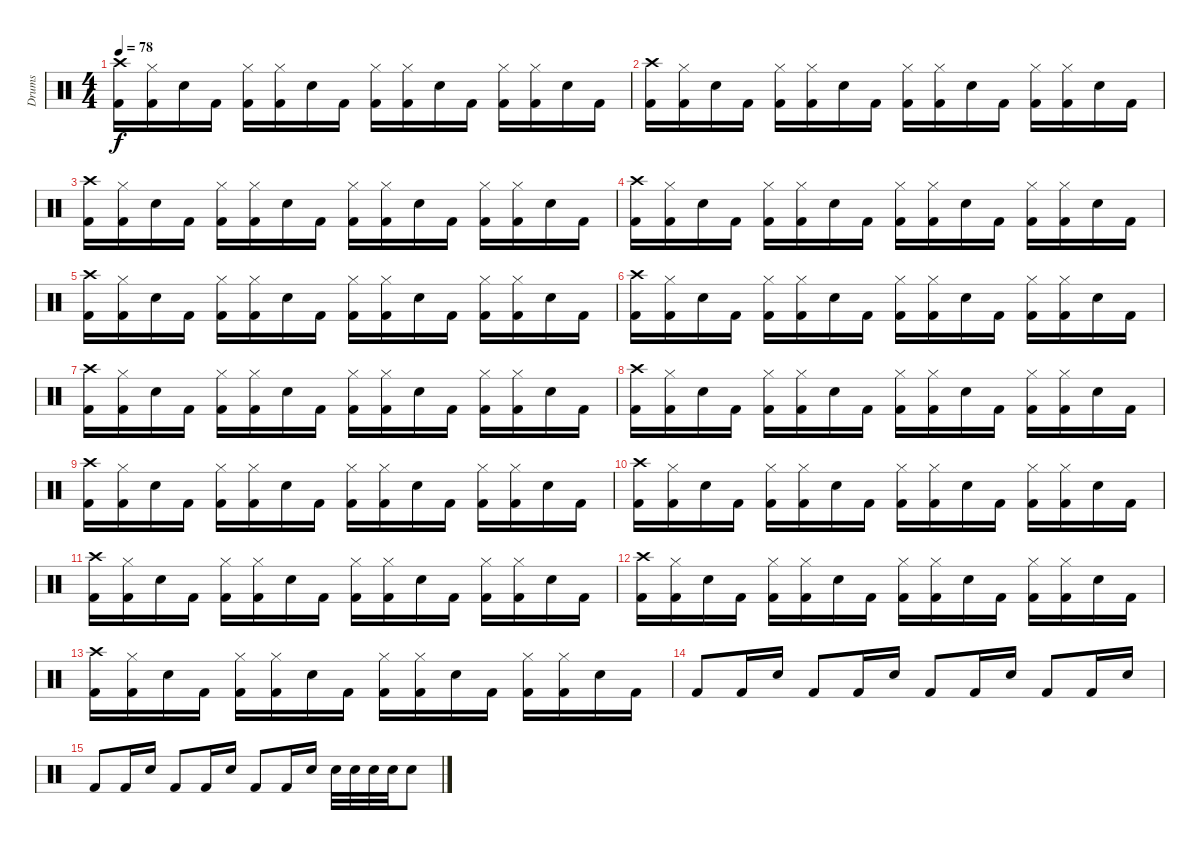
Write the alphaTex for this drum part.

\track ("Drums" "Drums") {instrument percussion}
\staff {score}
\articulation defaults
\ts (4 4)
\tempo 78
\clef neutral
\ks c
("Crash high (hit)" "Kick (hit) 2").16{dy f} ("Hi-Hat (closed)" "Kick (hit) 2").16 "Electric Snare (hit)".16 "Kick (hit) 2".16 ("Hi-Hat (closed)" "Kick (hit) 2").16 ("Hi-Hat (closed)" "Kick (hit) 2").16 "Electric Snare (hit)".16 "Kick (hit) 2".16 ("Hi-Hat (closed)" "Kick (hit) 2").16 ("Hi-Hat (closed)" "Kick (hit) 2").16 "Electric Snare (hit)".16 "Kick (hit) 2".16 ("Hi-Hat (closed)" "Kick (hit) 2").16 ("Hi-Hat (closed)" "Kick (hit) 2").16 "Electric Snare (hit)".16 "Kick (hit) 2".16 |
("Crash high (hit)" "Kick (hit) 2").16 ("Hi-Hat (closed)" "Kick (hit) 2").16 "Electric Snare (hit)".16 "Kick (hit) 2".16 ("Hi-Hat (closed)" "Kick (hit) 2").16 ("Hi-Hat (closed)" "Kick (hit) 2").16 "Electric Snare (hit)".16 "Kick (hit) 2".16 ("Hi-Hat (closed)" "Kick (hit) 2").16 ("Hi-Hat (closed)" "Kick (hit) 2").16 "Electric Snare (hit)".16 "Kick (hit) 2".16 ("Hi-Hat (closed)" "Kick (hit) 2").16 ("Hi-Hat (closed)" "Kick (hit) 2").16 "Electric Snare (hit)".16 "Kick (hit) 2".16 |
("Crash high (hit)" "Kick (hit) 2").16 ("Hi-Hat (closed)" "Kick (hit) 2").16 "Electric Snare (hit)".16 "Kick (hit) 2".16 ("Hi-Hat (closed)" "Kick (hit) 2").16 ("Hi-Hat (closed)" "Kick (hit) 2").16 "Electric Snare (hit)".16 "Kick (hit) 2".16 ("Hi-Hat (closed)" "Kick (hit) 2").16 ("Hi-Hat (closed)" "Kick (hit) 2").16 "Electric Snare (hit)".16 "Kick (hit) 2".16 ("Hi-Hat (closed)" "Kick (hit) 2").16 ("Hi-Hat (closed)" "Kick (hit) 2").16 "Electric Snare (hit)".16 "Kick (hit) 2".16 |
("Crash high (hit)" "Kick (hit) 2").16 ("Hi-Hat (closed)" "Kick (hit) 2").16 "Electric Snare (hit)".16 "Kick (hit) 2".16 ("Hi-Hat (closed)" "Kick (hit) 2").16 ("Hi-Hat (closed)" "Kick (hit) 2").16 "Electric Snare (hit)".16 "Kick (hit) 2".16 ("Hi-Hat (closed)" "Kick (hit) 2").16 ("Hi-Hat (closed)" "Kick (hit) 2").16 "Electric Snare (hit)".16 "Kick (hit) 2".16 ("Hi-Hat (closed)" "Kick (hit) 2").16 ("Hi-Hat (closed)" "Kick (hit) 2").16 "Electric Snare (hit)".16 "Kick (hit) 2".16 |
("Crash high (hit)" "Kick (hit) 2").16 ("Hi-Hat (closed)" "Kick (hit) 2").16 "Electric Snare (hit)".16 "Kick (hit) 2".16 ("Hi-Hat (closed)" "Kick (hit) 2").16 ("Hi-Hat (closed)" "Kick (hit) 2").16 "Electric Snare (hit)".16 "Kick (hit) 2".16 ("Hi-Hat (closed)" "Kick (hit) 2").16 ("Hi-Hat (closed)" "Kick (hit) 2").16 "Electric Snare (hit)".16 "Kick (hit) 2".16 ("Hi-Hat (closed)" "Kick (hit) 2").16 ("Hi-Hat (closed)" "Kick (hit) 2").16 "Electric Snare (hit)".16 "Kick (hit) 2".16 |
("Crash high (hit)" "Kick (hit) 2").16 ("Hi-Hat (closed)" "Kick (hit) 2").16 "Electric Snare (hit)".16 "Kick (hit) 2".16 ("Hi-Hat (closed)" "Kick (hit) 2").16 ("Hi-Hat (closed)" "Kick (hit) 2").16 "Electric Snare (hit)".16 "Kick (hit) 2".16 ("Hi-Hat (closed)" "Kick (hit) 2").16 ("Hi-Hat (closed)" "Kick (hit) 2").16 "Electric Snare (hit)".16 "Kick (hit) 2".16 ("Hi-Hat (closed)" "Kick (hit) 2").16 ("Hi-Hat (closed)" "Kick (hit) 2").16 "Electric Snare (hit)".16 "Kick (hit) 2".16 |
("Crash high (hit)" "Kick (hit) 2").16 ("Hi-Hat (closed)" "Kick (hit) 2").16 "Electric Snare (hit)".16 "Kick (hit) 2".16 ("Hi-Hat (closed)" "Kick (hit) 2").16 ("Hi-Hat (closed)" "Kick (hit) 2").16 "Electric Snare (hit)".16 "Kick (hit) 2".16 ("Hi-Hat (closed)" "Kick (hit) 2").16 ("Hi-Hat (closed)" "Kick (hit) 2").16 "Electric Snare (hit)".16 "Kick (hit) 2".16 ("Hi-Hat (closed)" "Kick (hit) 2").16 ("Hi-Hat (closed)" "Kick (hit) 2").16 "Electric Snare (hit)".16 "Kick (hit) 2".16 |
("Crash high (hit)" "Kick (hit) 2").16 ("Hi-Hat (closed)" "Kick (hit) 2").16 "Electric Snare (hit)".16 "Kick (hit) 2".16 ("Hi-Hat (closed)" "Kick (hit) 2").16 ("Hi-Hat (closed)" "Kick (hit) 2").16 "Electric Snare (hit)".16 "Kick (hit) 2".16 ("Hi-Hat (closed)" "Kick (hit) 2").16 ("Hi-Hat (closed)" "Kick (hit) 2").16 "Electric Snare (hit)".16 "Kick (hit) 2".16 ("Hi-Hat (closed)" "Kick (hit) 2").16 ("Hi-Hat (closed)" "Kick (hit) 2").16 "Electric Snare (hit)".16 "Kick (hit) 2".16 |
("Crash high (hit)" "Kick (hit) 2").16 ("Hi-Hat (closed)" "Kick (hit) 2").16 "Electric Snare (hit)".16 "Kick (hit) 2".16 ("Hi-Hat (closed)" "Kick (hit) 2").16 ("Hi-Hat (closed)" "Kick (hit) 2").16 "Electric Snare (hit)".16 "Kick (hit) 2".16 ("Hi-Hat (closed)" "Kick (hit) 2").16 ("Hi-Hat (closed)" "Kick (hit) 2").16 "Electric Snare (hit)".16 "Kick (hit) 2".16 ("Hi-Hat (closed)" "Kick (hit) 2").16 ("Hi-Hat (closed)" "Kick (hit) 2").16 "Electric Snare (hit)".16 "Kick (hit) 2".16 |
("Crash high (hit)" "Kick (hit) 2").16 ("Hi-Hat (closed)" "Kick (hit) 2").16 "Electric Snare (hit)".16 "Kick (hit) 2".16 ("Hi-Hat (closed)" "Kick (hit) 2").16 ("Hi-Hat (closed)" "Kick (hit) 2").16 "Electric Snare (hit)".16 "Kick (hit) 2".16 ("Hi-Hat (closed)" "Kick (hit) 2").16 ("Hi-Hat (closed)" "Kick (hit) 2").16 "Electric Snare (hit)".16 "Kick (hit) 2".16 ("Hi-Hat (closed)" "Kick (hit) 2").16 ("Hi-Hat (closed)" "Kick (hit) 2").16 "Electric Snare (hit)".16 "Kick (hit) 2".16 |
("Crash high (hit)" "Kick (hit) 2").16 ("Hi-Hat (closed)" "Kick (hit) 2").16 "Electric Snare (hit)".16 "Kick (hit) 2".16 ("Hi-Hat (closed)" "Kick (hit) 2").16 ("Hi-Hat (closed)" "Kick (hit) 2").16 "Electric Snare (hit)".16 "Kick (hit) 2".16 ("Hi-Hat (closed)" "Kick (hit) 2").16 ("Hi-Hat (closed)" "Kick (hit) 2").16 "Electric Snare (hit)".16 "Kick (hit) 2".16 ("Hi-Hat (closed)" "Kick (hit) 2").16 ("Hi-Hat (closed)" "Kick (hit) 2").16 "Electric Snare (hit)".16 "Kick (hit) 2".16 |
("Crash high (hit)" "Kick (hit) 2").16 ("Hi-Hat (closed)" "Kick (hit) 2").16 "Electric Snare (hit)".16 "Kick (hit) 2".16 ("Hi-Hat (closed)" "Kick (hit) 2").16 ("Hi-Hat (closed)" "Kick (hit) 2").16 "Electric Snare (hit)".16 "Kick (hit) 2".16 ("Hi-Hat (closed)" "Kick (hit) 2").16 ("Hi-Hat (closed)" "Kick (hit) 2").16 "Electric Snare (hit)".16 "Kick (hit) 2".16 ("Hi-Hat (closed)" "Kick (hit) 2").16 ("Hi-Hat (closed)" "Kick (hit) 2").16 "Electric Snare (hit)".16 "Kick (hit) 2".16 |
("Crash high (hit)" "Kick (hit) 2").16 ("Hi-Hat (closed)" "Kick (hit) 2").16 "Electric Snare (hit)".16 "Kick (hit) 2".16 ("Hi-Hat (closed)" "Kick (hit) 2").16 ("Hi-Hat (closed)" "Kick (hit) 2").16 "Electric Snare (hit)".16 "Kick (hit) 2".16 ("Hi-Hat (closed)" "Kick (hit) 2").16 ("Hi-Hat (closed)" "Kick (hit) 2").16 "Electric Snare (hit)".16 "Kick (hit) 2".16 ("Hi-Hat (closed)" "Kick (hit) 2").16 ("Hi-Hat (closed)" "Kick (hit) 2").16 "Electric Snare (hit)".16 "Kick (hit) 2".16 |
"Kick (hit) 2".8 "Kick (hit) 2".16 "Electric Snare (hit)".16 "Kick (hit) 2".8 "Kick (hit) 2".16 "Electric Snare (hit)".16 "Kick (hit) 2".8 "Kick (hit) 2".16 "Electric Snare (hit)".16 "Kick (hit) 2".8 "Kick (hit) 2".16 "Electric Snare (hit)".16 |
"Kick (hit) 2".8 "Kick (hit) 2".16 "Electric Snare (hit)".16 "Kick (hit) 2".8 "Kick (hit) 2".16 "Electric Snare (hit)".16 "Kick (hit) 2".8 "Kick (hit) 2".16 "Electric Snare (hit)".16 "Electric Snare (hit)".32 "Electric Snare (hit)".32 "Electric Snare (hit)".32 "Electric Snare (hit)".32 "Electric Snare (hit)".8
